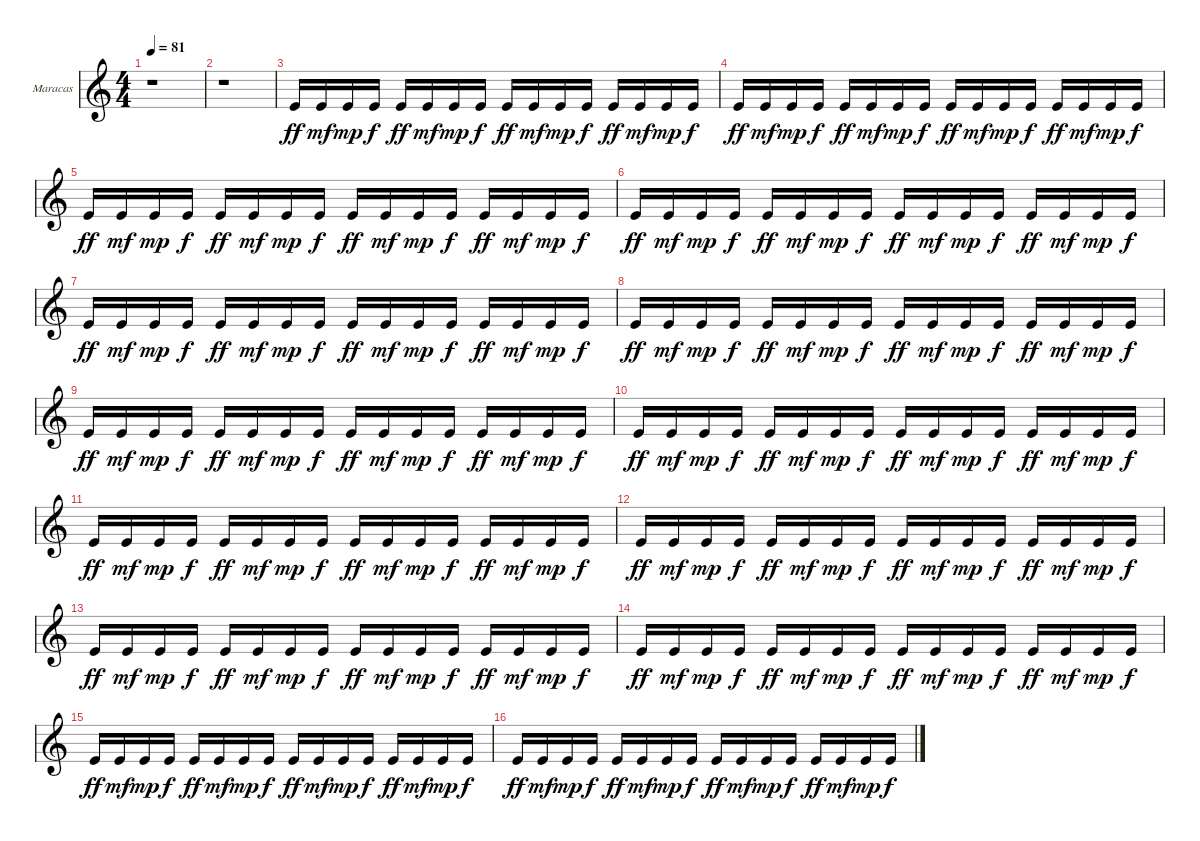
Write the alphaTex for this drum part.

\bracketExtendMode groupsimilarinstruments
\firstSystemTrackNameOrientation horizontal
\otherSystemsTrackNameOrientation horizontal
\track ("Maracas" "Maracas") {instrument percussion}
\staff {score}
\articulation defaults
\ts (4 4)
\tempo 81
\clef g2
\ks c
r.1{dy ff} |
r.1 |
"Kick (hit)".16 "Kick (hit)".16{dy mf} "Kick (hit)".16{dy mp} "Kick (hit)".16{dy f} "Kick (hit)".16{dy ff} "Kick (hit)".16{dy mf} "Kick (hit)".16{dy mp} "Kick (hit)".16{dy f} "Kick (hit)".16{dy ff} "Kick (hit)".16{dy mf} "Kick (hit)".16{dy mp} "Kick (hit)".16{dy f} "Kick (hit)".16{dy ff} "Kick (hit)".16{dy mf} "Kick (hit)".16{dy mp} "Kick (hit)".16{dy f} |
"Kick (hit)".16{dy ff} "Kick (hit)".16{dy mf} "Kick (hit)".16{dy mp} "Kick (hit)".16{dy f} "Kick (hit)".16{dy ff} "Kick (hit)".16{dy mf} "Kick (hit)".16{dy mp} "Kick (hit)".16{dy f} "Kick (hit)".16{dy ff} "Kick (hit)".16{dy mf} "Kick (hit)".16{dy mp} "Kick (hit)".16{dy f} "Kick (hit)".16{dy ff} "Kick (hit)".16{dy mf} "Kick (hit)".16{dy mp} "Kick (hit)".16{dy f} |
"Kick (hit)".16{dy ff} "Kick (hit)".16{dy mf} "Kick (hit)".16{dy mp} "Kick (hit)".16{dy f} "Kick (hit)".16{dy ff} "Kick (hit)".16{dy mf} "Kick (hit)".16{dy mp} "Kick (hit)".16{dy f} "Kick (hit)".16{dy ff} "Kick (hit)".16{dy mf} "Kick (hit)".16{dy mp} "Kick (hit)".16{dy f} "Kick (hit)".16{dy ff} "Kick (hit)".16{dy mf} "Kick (hit)".16{dy mp} "Kick (hit)".16{dy f} |
"Kick (hit)".16{dy ff} "Kick (hit)".16{dy mf} "Kick (hit)".16{dy mp} "Kick (hit)".16{dy f} "Kick (hit)".16{dy ff} "Kick (hit)".16{dy mf} "Kick (hit)".16{dy mp} "Kick (hit)".16{dy f} "Kick (hit)".16{dy ff} "Kick (hit)".16{dy mf} "Kick (hit)".16{dy mp} "Kick (hit)".16{dy f} "Kick (hit)".16{dy ff} "Kick (hit)".16{dy mf} "Kick (hit)".16{dy mp} "Kick (hit)".16{dy f} |
"Kick (hit)".16{dy ff} "Kick (hit)".16{dy mf} "Kick (hit)".16{dy mp} "Kick (hit)".16{dy f} "Kick (hit)".16{dy ff} "Kick (hit)".16{dy mf} "Kick (hit)".16{dy mp} "Kick (hit)".16{dy f} "Kick (hit)".16{dy ff} "Kick (hit)".16{dy mf} "Kick (hit)".16{dy mp} "Kick (hit)".16{dy f} "Kick (hit)".16{dy ff} "Kick (hit)".16{dy mf} "Kick (hit)".16{dy mp} "Kick (hit)".16{dy f} |
"Kick (hit)".16{dy ff} "Kick (hit)".16{dy mf} "Kick (hit)".16{dy mp} "Kick (hit)".16{dy f} "Kick (hit)".16{dy ff} "Kick (hit)".16{dy mf} "Kick (hit)".16{dy mp} "Kick (hit)".16{dy f} "Kick (hit)".16{dy ff} "Kick (hit)".16{dy mf} "Kick (hit)".16{dy mp} "Kick (hit)".16{dy f} "Kick (hit)".16{dy ff} "Kick (hit)".16{dy mf} "Kick (hit)".16{dy mp} "Kick (hit)".16{dy f} |
"Kick (hit)".16{dy ff} "Kick (hit)".16{dy mf} "Kick (hit)".16{dy mp} "Kick (hit)".16{dy f} "Kick (hit)".16{dy ff} "Kick (hit)".16{dy mf} "Kick (hit)".16{dy mp} "Kick (hit)".16{dy f} "Kick (hit)".16{dy ff} "Kick (hit)".16{dy mf} "Kick (hit)".16{dy mp} "Kick (hit)".16{dy f} "Kick (hit)".16{dy ff} "Kick (hit)".16{dy mf} "Kick (hit)".16{dy mp} "Kick (hit)".16{dy f} |
"Kick (hit)".16{dy ff} "Kick (hit)".16{dy mf} "Kick (hit)".16{dy mp} "Kick (hit)".16{dy f} "Kick (hit)".16{dy ff} "Kick (hit)".16{dy mf} "Kick (hit)".16{dy mp} "Kick (hit)".16{dy f} "Kick (hit)".16{dy ff} "Kick (hit)".16{dy mf} "Kick (hit)".16{dy mp} "Kick (hit)".16{dy f} "Kick (hit)".16{dy ff} "Kick (hit)".16{dy mf} "Kick (hit)".16{dy mp} "Kick (hit)".16{dy f} |
"Kick (hit)".16{dy ff} "Kick (hit)".16{dy mf} "Kick (hit)".16{dy mp} "Kick (hit)".16{dy f} "Kick (hit)".16{dy ff} "Kick (hit)".16{dy mf} "Kick (hit)".16{dy mp} "Kick (hit)".16{dy f} "Kick (hit)".16{dy ff} "Kick (hit)".16{dy mf} "Kick (hit)".16{dy mp} "Kick (hit)".16{dy f} "Kick (hit)".16{dy ff} "Kick (hit)".16{dy mf} "Kick (hit)".16{dy mp} "Kick (hit)".16{dy f} |
"Kick (hit)".16{dy ff} "Kick (hit)".16{dy mf} "Kick (hit)".16{dy mp} "Kick (hit)".16{dy f} "Kick (hit)".16{dy ff} "Kick (hit)".16{dy mf} "Kick (hit)".16{dy mp} "Kick (hit)".16{dy f} "Kick (hit)".16{dy ff} "Kick (hit)".16{dy mf} "Kick (hit)".16{dy mp} "Kick (hit)".16{dy f} "Kick (hit)".16{dy ff} "Kick (hit)".16{dy mf} "Kick (hit)".16{dy mp} "Kick (hit)".16{dy f} |
"Kick (hit)".16{dy ff} "Kick (hit)".16{dy mf} "Kick (hit)".16{dy mp} "Kick (hit)".16{dy f} "Kick (hit)".16{dy ff} "Kick (hit)".16{dy mf} "Kick (hit)".16{dy mp} "Kick (hit)".16{dy f} "Kick (hit)".16{dy ff} "Kick (hit)".16{dy mf} "Kick (hit)".16{dy mp} "Kick (hit)".16{dy f} "Kick (hit)".16{dy ff} "Kick (hit)".16{dy mf} "Kick (hit)".16{dy mp} "Kick (hit)".16{dy f} |
"Kick (hit)".16{dy ff} "Kick (hit)".16{dy mf} "Kick (hit)".16{dy mp} "Kick (hit)".16{dy f} "Kick (hit)".16{dy ff} "Kick (hit)".16{dy mf} "Kick (hit)".16{dy mp} "Kick (hit)".16{dy f} "Kick (hit)".16{dy ff} "Kick (hit)".16{dy mf} "Kick (hit)".16{dy mp} "Kick (hit)".16{dy f} "Kick (hit)".16{dy ff} "Kick (hit)".16{dy mf} "Kick (hit)".16{dy mp} "Kick (hit)".16{dy f} |
"Kick (hit)".16{dy ff} "Kick (hit)".16{dy mf} "Kick (hit)".16{dy mp} "Kick (hit)".16{dy f} "Kick (hit)".16{dy ff} "Kick (hit)".16{dy mf} "Kick (hit)".16{dy mp} "Kick (hit)".16{dy f} "Kick (hit)".16{dy ff} "Kick (hit)".16{dy mf} "Kick (hit)".16{dy mp} "Kick (hit)".16{dy f} "Kick (hit)".16{dy ff} "Kick (hit)".16{dy mf} "Kick (hit)".16{dy mp} "Kick (hit)".16{dy f} |
"Kick (hit)".16{dy ff} "Kick (hit)".16{dy mf} "Kick (hit)".16{dy mp} "Kick (hit)".16{dy f} "Kick (hit)".16{dy ff} "Kick (hit)".16{dy mf} "Kick (hit)".16{dy mp} "Kick (hit)".16{dy f} "Kick (hit)".16{dy ff} "Kick (hit)".16{dy mf} "Kick (hit)".16{dy mp} "Kick (hit)".16{dy f} "Kick (hit)".16{dy ff} "Kick (hit)".16{dy mf} "Kick (hit)".16{dy mp} "Kick (hit)".16{dy f}
